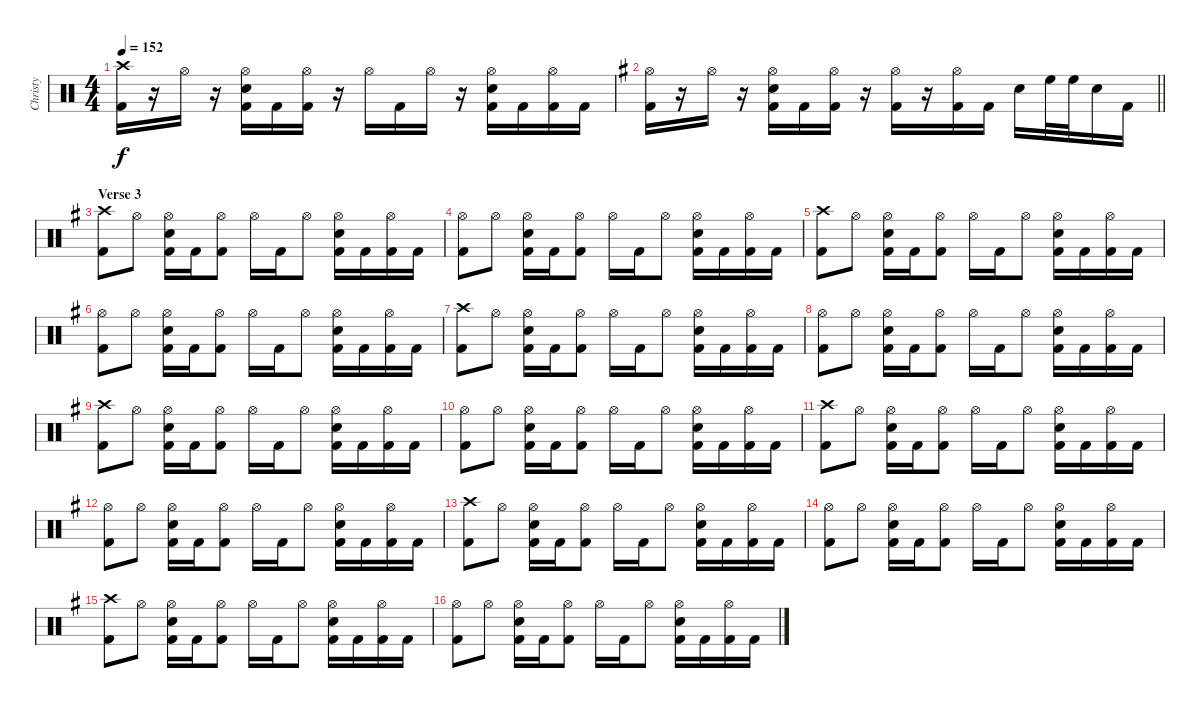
\track ("Christy" "Christy") {instrument percussion}
\staff {score}
\articulation defaults
\ts (4 4)
\tempo 152
\clef neutral
\ks c
("Crash high (hit)" "Kick (hit) 2").16{dy f} r.16 "Hi-Hat (open)".16 r.16 ("Hi-Hat (open)" "Snare (hit) 2" "Kick (hit) 2").16 "Kick (hit) 2".16 ("Hi-Hat (open)" "Kick (hit) 2").16 r.16 "Hi-Hat (open)".16 "Kick (hit) 2".16 "Hi-Hat (open)".16 r.16 ("Hi-Hat (open)" "Snare (hit) 2" "Kick (hit) 2").16 "Kick (hit) 2".16 ("Hi-Hat (open)" "Kick (hit) 2").16 "Kick (hit) 2".16 |
\barLineRight lightlight
\ks g
("Hi-Hat (open)" "Kick (hit) 2").16 r.16 "Hi-Hat (open)".16 r.16 ("Hi-Hat (open)" "Snare (hit) 2" "Kick (hit) 2").16 "Kick (hit) 2".16 ("Hi-Hat (open)" "Kick (hit) 2").16 r.16 ("Hi-Hat (open)" "Kick (hit) 2").16 r.16 ("Hi-Hat (open)" "Kick (hit) 2").16 "Kick (hit) 2".16 "Snare (hit) 2".16 "High Floor Tom (hit)".32 "High Floor Tom (hit)".32 "Snare (hit) 2".16 "Kick (hit) 2".16 |
\section ("" "Verse 3")
("Crash high (hit)" "Kick (hit) 2").8 "Hi-Hat (open)".8 ("Hi-Hat (open)" "Snare (hit) 2" "Kick (hit) 2").16 "Kick (hit) 2".16 ("Hi-Hat (open)" "Kick (hit) 2").8 "Hi-Hat (open)".16 "Kick (hit) 2".16 "Hi-Hat (open)".8 ("Hi-Hat (open)" "Snare (hit) 2" "Kick (hit) 2").16 "Kick (hit) 2".16 ("Hi-Hat (open)" "Kick (hit) 2").16 "Kick (hit) 2".16 |
("Hi-Hat (open)" "Kick (hit) 2").8 "Hi-Hat (open)".8 ("Hi-Hat (open)" "Snare (hit) 2" "Kick (hit) 2").16 "Kick (hit) 2".16 ("Hi-Hat (open)" "Kick (hit) 2").8 "Hi-Hat (open)".16 "Kick (hit) 2".16 "Hi-Hat (open)".8 ("Hi-Hat (open)" "Snare (hit) 2" "Kick (hit) 2").16 "Kick (hit) 2".16 ("Hi-Hat (open)" "Kick (hit) 2").16 "Kick (hit) 2".16 |
("Crash high (hit)" "Kick (hit) 2").8 "Hi-Hat (open)".8 ("Hi-Hat (open)" "Snare (hit) 2" "Kick (hit) 2").16 "Kick (hit) 2".16 ("Hi-Hat (open)" "Kick (hit) 2").8 "Hi-Hat (open)".16 "Kick (hit) 2".16 "Hi-Hat (open)".8 ("Hi-Hat (open)" "Snare (hit) 2" "Kick (hit) 2").16 "Kick (hit) 2".16 ("Hi-Hat (open)" "Kick (hit) 2").16 "Kick (hit) 2".16 |
("Hi-Hat (open)" "Kick (hit) 2").8 "Hi-Hat (open)".8 ("Hi-Hat (open)" "Snare (hit) 2" "Kick (hit) 2").16 "Kick (hit) 2".16 ("Hi-Hat (open)" "Kick (hit) 2").8 "Hi-Hat (open)".16 "Kick (hit) 2".16 "Hi-Hat (open)".8 ("Hi-Hat (open)" "Snare (hit) 2" "Kick (hit) 2").16 "Kick (hit) 2".16 ("Hi-Hat (open)" "Kick (hit) 2").16 "Kick (hit) 2".16 |
("Crash high (hit)" "Kick (hit) 2").8 "Hi-Hat (open)".8 ("Hi-Hat (open)" "Snare (hit) 2" "Kick (hit) 2").16 "Kick (hit) 2".16 ("Hi-Hat (open)" "Kick (hit) 2").8 "Hi-Hat (open)".16 "Kick (hit) 2".16 "Hi-Hat (open)".8 ("Hi-Hat (open)" "Snare (hit) 2" "Kick (hit) 2").16 "Kick (hit) 2".16 ("Hi-Hat (open)" "Kick (hit) 2").16 "Kick (hit) 2".16 |
("Hi-Hat (open)" "Kick (hit) 2").8 "Hi-Hat (open)".8 ("Hi-Hat (open)" "Snare (hit) 2" "Kick (hit) 2").16 "Kick (hit) 2".16 ("Hi-Hat (open)" "Kick (hit) 2").8 "Hi-Hat (open)".16 "Kick (hit) 2".16 "Hi-Hat (open)".8 ("Hi-Hat (open)" "Snare (hit) 2" "Kick (hit) 2").16 "Kick (hit) 2".16 ("Hi-Hat (open)" "Kick (hit) 2").16 "Kick (hit) 2".16 |
("Crash high (hit)" "Kick (hit) 2").8 "Hi-Hat (open)".8 ("Hi-Hat (open)" "Snare (hit) 2" "Kick (hit) 2").16 "Kick (hit) 2".16 ("Hi-Hat (open)" "Kick (hit) 2").8 "Hi-Hat (open)".16 "Kick (hit) 2".16 "Hi-Hat (open)".8 ("Hi-Hat (open)" "Snare (hit) 2" "Kick (hit) 2").16 "Kick (hit) 2".16 ("Hi-Hat (open)" "Kick (hit) 2").16 "Kick (hit) 2".16 |
("Hi-Hat (open)" "Kick (hit) 2").8 "Hi-Hat (open)".8 ("Hi-Hat (open)" "Snare (hit) 2" "Kick (hit) 2").16 "Kick (hit) 2".16 ("Hi-Hat (open)" "Kick (hit) 2").8 "Hi-Hat (open)".16 "Kick (hit) 2".16 "Hi-Hat (open)".8 ("Hi-Hat (open)" "Snare (hit) 2" "Kick (hit) 2").16 "Kick (hit) 2".16 ("Hi-Hat (open)" "Kick (hit) 2").16 "Kick (hit) 2".16 |
("Crash high (hit)" "Kick (hit) 2").8 "Hi-Hat (open)".8 ("Hi-Hat (open)" "Snare (hit) 2" "Kick (hit) 2").16 "Kick (hit) 2".16 ("Hi-Hat (open)" "Kick (hit) 2").8 "Hi-Hat (open)".16 "Kick (hit) 2".16 "Hi-Hat (open)".8 ("Hi-Hat (open)" "Snare (hit) 2" "Kick (hit) 2").16 "Kick (hit) 2".16 ("Hi-Hat (open)" "Kick (hit) 2").16 "Kick (hit) 2".16 |
("Hi-Hat (open)" "Kick (hit) 2").8 "Hi-Hat (open)".8 ("Hi-Hat (open)" "Snare (hit) 2" "Kick (hit) 2").16 "Kick (hit) 2".16 ("Hi-Hat (open)" "Kick (hit) 2").8 "Hi-Hat (open)".16 "Kick (hit) 2".16 "Hi-Hat (open)".8 ("Hi-Hat (open)" "Snare (hit) 2" "Kick (hit) 2").16 "Kick (hit) 2".16 ("Hi-Hat (open)" "Kick (hit) 2").16 "Kick (hit) 2".16 |
("Crash high (hit)" "Kick (hit) 2").8 "Hi-Hat (open)".8 ("Hi-Hat (open)" "Snare (hit) 2" "Kick (hit) 2").16 "Kick (hit) 2".16 ("Hi-Hat (open)" "Kick (hit) 2").8 "Hi-Hat (open)".16 "Kick (hit) 2".16 "Hi-Hat (open)".8 ("Hi-Hat (open)" "Snare (hit) 2" "Kick (hit) 2").16 "Kick (hit) 2".16 ("Hi-Hat (open)" "Kick (hit) 2").16 "Kick (hit) 2".16 |
("Hi-Hat (open)" "Kick (hit) 2").8 "Hi-Hat (open)".8 ("Hi-Hat (open)" "Snare (hit) 2" "Kick (hit) 2").16 "Kick (hit) 2".16 ("Hi-Hat (open)" "Kick (hit) 2").8 "Hi-Hat (open)".16 "Kick (hit) 2".16 "Hi-Hat (open)".8 ("Hi-Hat (open)" "Snare (hit) 2" "Kick (hit) 2").16 "Kick (hit) 2".16 ("Hi-Hat (open)" "Kick (hit) 2").16 "Kick (hit) 2".16 |
("Crash high (hit)" "Kick (hit) 2").8 "Hi-Hat (open)".8 ("Hi-Hat (open)" "Snare (hit) 2" "Kick (hit) 2").16 "Kick (hit) 2".16 ("Hi-Hat (open)" "Kick (hit) 2").8 "Hi-Hat (open)".16 "Kick (hit) 2".16 "Hi-Hat (open)".8 ("Hi-Hat (open)" "Snare (hit) 2" "Kick (hit) 2").16 "Kick (hit) 2".16 ("Hi-Hat (open)" "Kick (hit) 2").16 "Kick (hit) 2".16 |
("Hi-Hat (open)" "Kick (hit) 2").8 "Hi-Hat (open)".8 ("Hi-Hat (open)" "Snare (hit) 2" "Kick (hit) 2").16 "Kick (hit) 2".16 ("Hi-Hat (open)" "Kick (hit) 2").8 "Hi-Hat (open)".16 "Kick (hit) 2".16 "Hi-Hat (open)".8 ("Hi-Hat (open)" "Snare (hit) 2" "Kick (hit) 2").16 "Kick (hit) 2".16 ("Hi-Hat (open)" "Kick (hit) 2").16 "Kick (hit) 2".16
